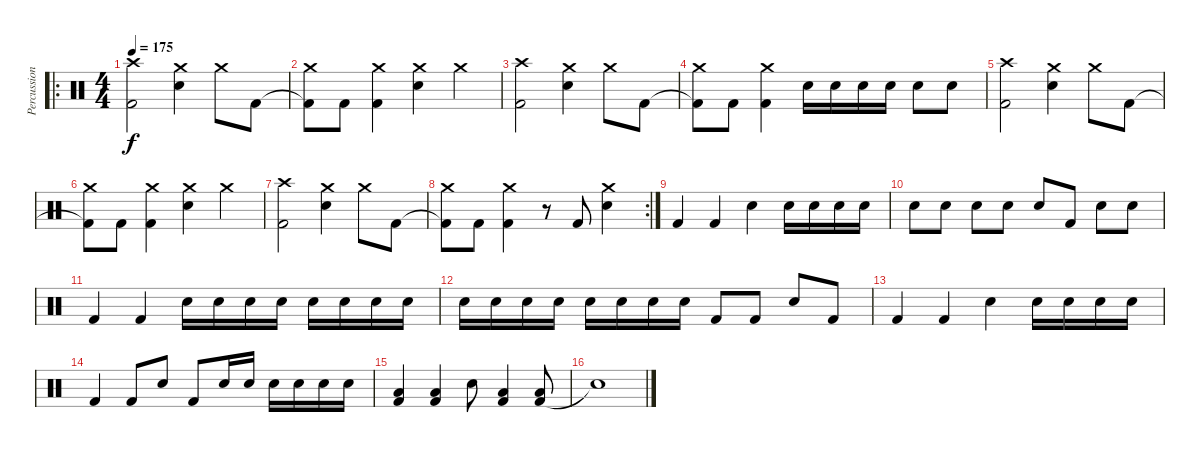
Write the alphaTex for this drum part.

\track ("Percussion" "Percussion") {instrument percussion}
\staff {score}
\articulation defaults
\ro
\ts (4 4)
\tempo 175
\clef neutral
\ks c
("Kick (hit) 2" "Crash high (hit)").2{dy f} ("Electric Snare (hit)" "Crash medium (hit)").4 "Crash medium (hit)".8 "Kick (hit) 2".8 |
("Kick (hit) 2"{t} "Crash medium (hit)").8 "Kick (hit) 2".8 ("Kick (hit) 2" "Crash medium (hit)").4 ("Electric Snare (hit)" "Crash medium (hit)").4 "Crash medium (hit)".4 |
("Kick (hit) 2" "Crash high (hit)").2 ("Electric Snare (hit)" "Crash medium (hit)").4 "Crash medium (hit)".8 "Kick (hit) 2".8 |
("Kick (hit) 2"{t} "Crash medium (hit)").8 "Kick (hit) 2".8 ("Kick (hit) 2" "Crash medium (hit)").4 "Electric Snare (hit)".16 "Electric Snare (hit)".16 "Electric Snare (hit)".16 "Electric Snare (hit)".16 "Electric Snare (hit)".8 "Electric Snare (hit)".8 |
("Kick (hit) 2" "Crash high (hit)").2 ("Electric Snare (hit)" "Crash medium (hit)").4 "Crash medium (hit)".8 "Kick (hit) 2".8 |
("Kick (hit) 2"{t} "Crash medium (hit)").8 "Kick (hit) 2".8 ("Kick (hit) 2" "Crash medium (hit)").4 ("Electric Snare (hit)" "Crash medium (hit)").4 "Crash medium (hit)".4 |
("Kick (hit) 2" "Crash high (hit)").2 ("Electric Snare (hit)" "Crash medium (hit)").4 "Crash medium (hit)".8 "Kick (hit) 2".8 |
\rc 2
("Kick (hit) 2"{t} "Crash medium (hit)").8 "Kick (hit) 2".8 ("Kick (hit) 2" "Crash medium (hit)").4 r.8 "Kick (hit) 2".8 ("Electric Snare (hit)" "Crash medium (hit)").4 |
"Kick (hit) 2".4 "Kick (hit) 2".4 "Electric Snare (hit)".4 "Electric Snare (hit)".16 "Electric Snare (hit)".16 "Electric Snare (hit)".16 "Electric Snare (hit)".16 |
"Electric Snare (hit)".8 "Electric Snare (hit)".8 "Electric Snare (hit)".8 "Electric Snare (hit)".8 "Electric Snare (hit)".8 "Kick (hit) 2".8 "Electric Snare (hit)".8 "Electric Snare (hit)".8 |
"Kick (hit) 2".4 "Kick (hit) 2".4 "Electric Snare (hit)".16 "Electric Snare (hit)".16 "Electric Snare (hit)".16 "Electric Snare (hit)".16 "Electric Snare (hit)".16 "Electric Snare (hit)".16 "Electric Snare (hit)".16 "Electric Snare (hit)".16 |
"Electric Snare (hit)".16 "Electric Snare (hit)".16 "Electric Snare (hit)".16 "Electric Snare (hit)".16 "Electric Snare (hit)".16 "Electric Snare (hit)".16 "Electric Snare (hit)".16 "Electric Snare (hit)".16 "Kick (hit) 2".8 "Kick (hit) 2".8 "Electric Snare (hit)".8 "Kick (hit) 2".8 |
"Kick (hit) 2".4 "Kick (hit) 2".4 "Electric Snare (hit)".4 "Electric Snare (hit)".16 "Electric Snare (hit)".16 "Electric Snare (hit)".16 "Electric Snare (hit)".16 |
"Kick (hit) 2".4 "Kick (hit) 2".8 "Electric Snare (hit)".8 "Kick (hit) 2".8 "Electric Snare (hit)".16 "Electric Snare (hit)".16 "Electric Snare (hit)".16 "Electric Snare (hit)".16 "Electric Snare (hit)".16 "Electric Snare (hit)".16 |
("Kick (hit) 2" "Low Tom (hit)").4 ("Kick (hit) 2" "Low Tom (hit)").4 "Electric Snare (hit)".8 ("Kick (hit) 2" "Low Tom (hit)").4 ("Kick (hit) 2" "Low Tom (hit)").8 |
"Snare (hit)"{t}.1
